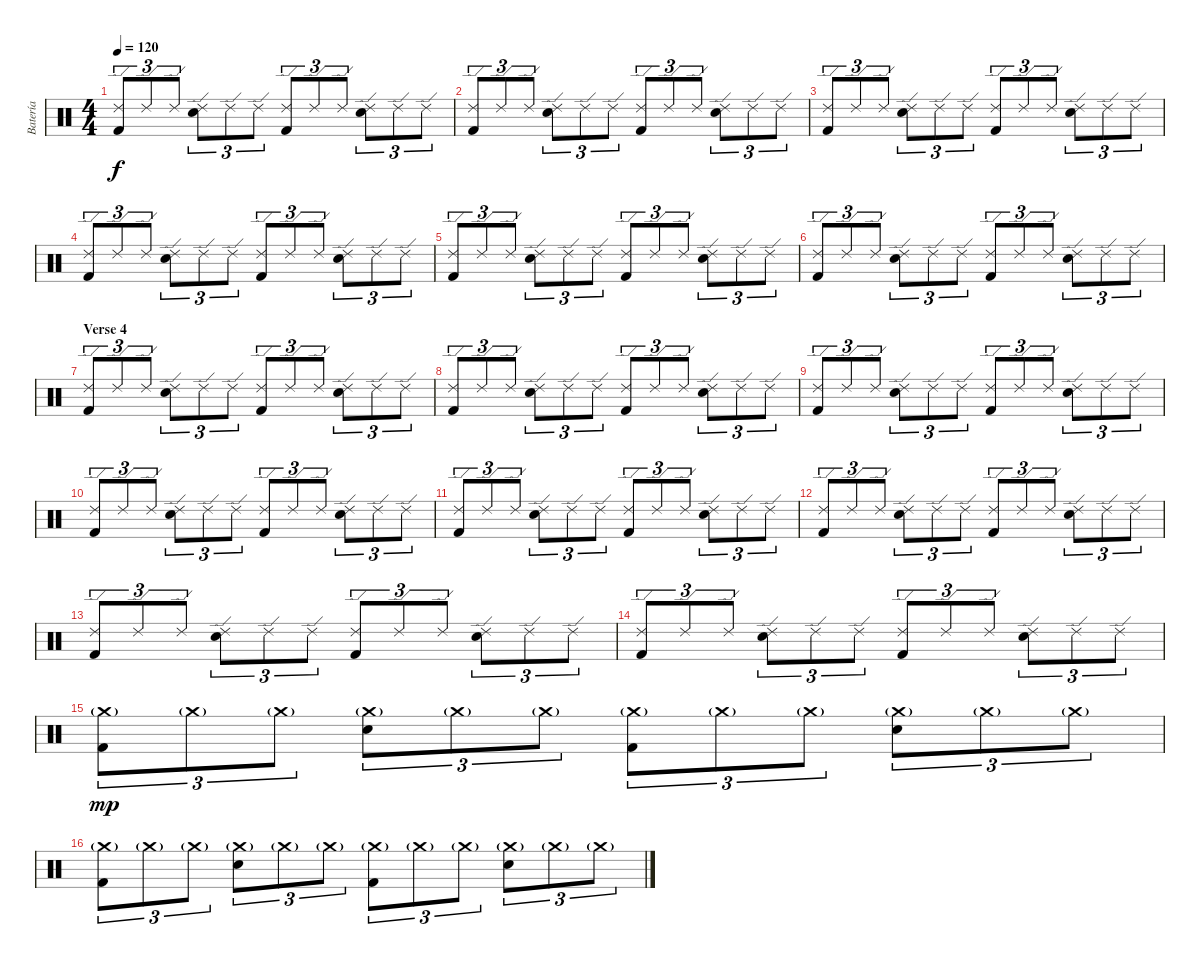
\track ("Batería" "Batería") {instrument percussion}
\staff {score}
\articulation defaults
\ts (4 4)
\tempo 120
\clef neutral
\ks c
("Ride (edge) 2" "Kick (hit) 2").8{tu (3 2) dy f} "Ride (edge) 2".8{tu (3 2)} "Ride (edge) 2".8{tu (3 2)} ("Ride (edge) 2" "Electric Snare (hit)").8{tu (3 2)} "Ride (edge) 2".8{tu (3 2)} "Ride (edge) 2".8{tu (3 2)} ("Ride (edge) 2" "Kick (hit) 2").8{tu (3 2)} "Ride (edge) 2".8{tu (3 2)} "Ride (edge) 2".8{tu (3 2)} ("Ride (edge) 2" "Electric Snare (hit)").8{tu (3 2)} "Ride (edge) 2".8{tu (3 2)} "Ride (edge) 2".8{tu (3 2)} |
("Ride (edge) 2" "Kick (hit) 2").8{tu (3 2)} "Ride (edge) 2".8{tu (3 2)} "Ride (edge) 2".8{tu (3 2)} ("Ride (edge) 2" "Electric Snare (hit)").8{tu (3 2)} "Ride (edge) 2".8{tu (3 2)} "Ride (edge) 2".8{tu (3 2)} ("Ride (edge) 2" "Kick (hit) 2").8{tu (3 2)} "Ride (edge) 2".8{tu (3 2)} "Ride (edge) 2".8{tu (3 2)} ("Ride (edge) 2" "Electric Snare (hit)").8{tu (3 2)} "Ride (edge) 2".8{tu (3 2)} "Ride (edge) 2".8{tu (3 2)} |
("Ride (edge) 2" "Kick (hit) 2").8{tu (3 2)} "Ride (edge) 2".8{tu (3 2)} "Ride (edge) 2".8{tu (3 2)} ("Ride (edge) 2" "Electric Snare (hit)").8{tu (3 2)} "Ride (edge) 2".8{tu (3 2)} "Ride (edge) 2".8{tu (3 2)} ("Ride (edge) 2" "Kick (hit) 2").8{tu (3 2)} "Ride (edge) 2".8{tu (3 2)} "Ride (edge) 2".8{tu (3 2)} ("Ride (edge) 2" "Electric Snare (hit)").8{tu (3 2)} "Ride (edge) 2".8{tu (3 2)} "Ride (edge) 2".8{tu (3 2)} |
("Ride (edge) 2" "Kick (hit) 2").8{tu (3 2)} "Ride (edge) 2".8{tu (3 2)} "Ride (edge) 2".8{tu (3 2)} ("Ride (edge) 2" "Electric Snare (hit)").8{tu (3 2)} "Ride (edge) 2".8{tu (3 2)} "Ride (edge) 2".8{tu (3 2)} ("Ride (edge) 2" "Kick (hit) 2").8{tu (3 2)} "Ride (edge) 2".8{tu (3 2)} "Ride (edge) 2".8{tu (3 2)} ("Ride (edge) 2" "Electric Snare (hit)").8{tu (3 2)} "Ride (edge) 2".8{tu (3 2)} "Ride (edge) 2".8{tu (3 2)} |
("Ride (edge) 2" "Kick (hit) 2").8{tu (3 2)} "Ride (edge) 2".8{tu (3 2)} "Ride (edge) 2".8{tu (3 2)} ("Ride (edge) 2" "Electric Snare (hit)").8{tu (3 2)} "Ride (edge) 2".8{tu (3 2)} "Ride (edge) 2".8{tu (3 2)} ("Ride (edge) 2" "Kick (hit) 2").8{tu (3 2)} "Ride (edge) 2".8{tu (3 2)} "Ride (edge) 2".8{tu (3 2)} ("Ride (edge) 2" "Electric Snare (hit)").8{tu (3 2)} "Ride (edge) 2".8{tu (3 2)} "Ride (edge) 2".8{tu (3 2)} |
("Ride (edge) 2" "Kick (hit) 2").8{tu (3 2)} "Ride (edge) 2".8{tu (3 2)} "Ride (edge) 2".8{tu (3 2)} ("Ride (edge) 2" "Electric Snare (hit)").8{tu (3 2)} "Ride (edge) 2".8{tu (3 2)} "Ride (edge) 2".8{tu (3 2)} ("Ride (edge) 2" "Kick (hit) 2").8{tu (3 2)} "Ride (edge) 2".8{tu (3 2)} "Ride (edge) 2".8{tu (3 2)} ("Ride (edge) 2" "Electric Snare (hit)").8{tu (3 2)} "Ride (edge) 2".8{tu (3 2)} "Ride (edge) 2".8{tu (3 2)} |
\section ("" "Verse 4")
("Ride (edge) 2" "Kick (hit) 2").8{tu (3 2)} "Ride (edge) 2".8{tu (3 2)} "Ride (edge) 2".8{tu (3 2)} ("Ride (edge) 2" "Electric Snare (hit)").8{tu (3 2)} "Ride (edge) 2".8{tu (3 2)} "Ride (edge) 2".8{tu (3 2)} ("Ride (edge) 2" "Kick (hit) 2").8{tu (3 2)} "Ride (edge) 2".8{tu (3 2)} "Ride (edge) 2".8{tu (3 2)} ("Ride (edge) 2" "Electric Snare (hit)").8{tu (3 2)} "Ride (edge) 2".8{tu (3 2)} "Ride (edge) 2".8{tu (3 2)} |
("Ride (edge) 2" "Kick (hit) 2").8{tu (3 2)} "Ride (edge) 2".8{tu (3 2)} "Ride (edge) 2".8{tu (3 2)} ("Ride (edge) 2" "Electric Snare (hit)").8{tu (3 2)} "Ride (edge) 2".8{tu (3 2)} "Ride (edge) 2".8{tu (3 2)} ("Ride (edge) 2" "Kick (hit) 2").8{tu (3 2)} "Ride (edge) 2".8{tu (3 2)} "Ride (edge) 2".8{tu (3 2)} ("Ride (edge) 2" "Electric Snare (hit)").8{tu (3 2)} "Ride (edge) 2".8{tu (3 2)} "Ride (edge) 2".8{tu (3 2)} |
("Ride (edge) 2" "Kick (hit) 2").8{tu (3 2)} "Ride (edge) 2".8{tu (3 2)} "Ride (edge) 2".8{tu (3 2)} ("Ride (edge) 2" "Electric Snare (hit)").8{tu (3 2)} "Ride (edge) 2".8{tu (3 2)} "Ride (edge) 2".8{tu (3 2)} ("Ride (edge) 2" "Kick (hit) 2").8{tu (3 2)} "Ride (edge) 2".8{tu (3 2)} "Ride (edge) 2".8{tu (3 2)} ("Ride (edge) 2" "Electric Snare (hit)").8{tu (3 2)} "Ride (edge) 2".8{tu (3 2)} "Ride (edge) 2".8{tu (3 2)} |
("Ride (edge) 2" "Kick (hit) 2").8{tu (3 2)} "Ride (edge) 2".8{tu (3 2)} "Ride (edge) 2".8{tu (3 2)} ("Ride (edge) 2" "Electric Snare (hit)").8{tu (3 2)} "Ride (edge) 2".8{tu (3 2)} "Ride (edge) 2".8{tu (3 2)} ("Ride (edge) 2" "Kick (hit) 2").8{tu (3 2)} "Ride (edge) 2".8{tu (3 2)} "Ride (edge) 2".8{tu (3 2)} ("Ride (edge) 2" "Electric Snare (hit)").8{tu (3 2)} "Ride (edge) 2".8{tu (3 2)} "Ride (edge) 2".8{tu (3 2)} |
("Ride (edge) 2" "Kick (hit) 2").8{tu (3 2)} "Ride (edge) 2".8{tu (3 2)} "Ride (edge) 2".8{tu (3 2)} ("Ride (edge) 2" "Electric Snare (hit)").8{tu (3 2)} "Ride (edge) 2".8{tu (3 2)} "Ride (edge) 2".8{tu (3 2)} ("Ride (edge) 2" "Kick (hit) 2").8{tu (3 2)} "Ride (edge) 2".8{tu (3 2)} "Ride (edge) 2".8{tu (3 2)} ("Ride (edge) 2" "Electric Snare (hit)").8{tu (3 2)} "Ride (edge) 2".8{tu (3 2)} "Ride (edge) 2".8{tu (3 2)} |
("Ride (edge) 2" "Kick (hit) 2").8{tu (3 2)} "Ride (edge) 2".8{tu (3 2)} "Ride (edge) 2".8{tu (3 2)} ("Ride (edge) 2" "Electric Snare (hit)").8{tu (3 2)} "Ride (edge) 2".8{tu (3 2)} "Ride (edge) 2".8{tu (3 2)} ("Ride (edge) 2" "Kick (hit) 2").8{tu (3 2)} "Ride (edge) 2".8{tu (3 2)} "Ride (edge) 2".8{tu (3 2)} ("Ride (edge) 2" "Electric Snare (hit)").8{tu (3 2)} "Ride (edge) 2".8{tu (3 2)} "Ride (edge) 2".8{tu (3 2)} |
("Ride (edge) 2" "Kick (hit) 2").8{tu (3 2)} "Ride (edge) 2".8{tu (3 2)} "Ride (edge) 2".8{tu (3 2)} ("Ride (edge) 2" "Electric Snare (hit)").8{tu (3 2)} "Ride (edge) 2".8{tu (3 2)} "Ride (edge) 2".8{tu (3 2)} ("Ride (edge) 2" "Kick (hit) 2").8{tu (3 2)} "Ride (edge) 2".8{tu (3 2)} "Ride (edge) 2".8{tu (3 2)} ("Ride (edge) 2" "Electric Snare (hit)").8{tu (3 2)} "Ride (edge) 2".8{tu (3 2)} "Ride (edge) 2".8{tu (3 2)} |
("Ride (edge) 2" "Kick (hit) 2").8{tu (3 2)} "Ride (edge) 2".8{tu (3 2)} "Ride (edge) 2".8{tu (3 2)} ("Ride (edge) 2" "Electric Snare (hit)").8{tu (3 2)} "Ride (edge) 2".8{tu (3 2)} "Ride (edge) 2".8{tu (3 2)} ("Ride (edge) 2" "Kick (hit) 2").8{tu (3 2)} "Ride (edge) 2".8{tu (3 2)} "Ride (edge) 2".8{tu (3 2)} ("Ride (edge) 2" "Electric Snare (hit)").8{tu (3 2)} "Ride (edge) 2".8{tu (3 2)} "Ride (edge) 2".8{tu (3 2)} |
("Crash medium (hit)"{g} "Kick (hit) 2").8{tu (3 2) dy mp} "Crash medium (hit)"{g}.8{tu (3 2)} "Crash medium (hit)"{g}.8{tu (3 2)} ("Crash medium (hit)"{g} "Electric Snare (hit)").8{tu (3 2)} "Crash medium (hit)"{g}.8{tu (3 2)} "Crash medium (hit)"{g}.8{tu (3 2)} ("Crash medium (hit)"{g} "Kick (hit) 2").8{tu (3 2)} "Crash medium (hit)"{g}.8{tu (3 2)} "Crash medium (hit)"{g}.8{tu (3 2)} ("Crash medium (hit)"{g} "Electric Snare (hit)").8{tu (3 2)} "Crash medium (hit)"{g}.8{tu (3 2)} "Crash medium (hit)"{g}.8{tu (3 2)} |
("Crash medium (hit)"{g} "Kick (hit) 2").8{tu (3 2)} "Crash medium (hit)"{g}.8{tu (3 2)} "Crash medium (hit)"{g}.8{tu (3 2)} ("Crash medium (hit)"{g} "Electric Snare (hit)").8{tu (3 2)} "Crash medium (hit)"{g}.8{tu (3 2)} "Crash medium (hit)"{g}.8{tu (3 2)} ("Crash medium (hit)"{g} "Kick (hit) 2").8{tu (3 2)} "Crash medium (hit)"{g}.8{tu (3 2)} "Crash medium (hit)"{g}.8{tu (3 2)} ("Crash medium (hit)"{g} "Electric Snare (hit)").8{tu (3 2)} "Crash medium (hit)"{g}.8{tu (3 2)} "Crash medium (hit)"{g}.8{tu (3 2)}
